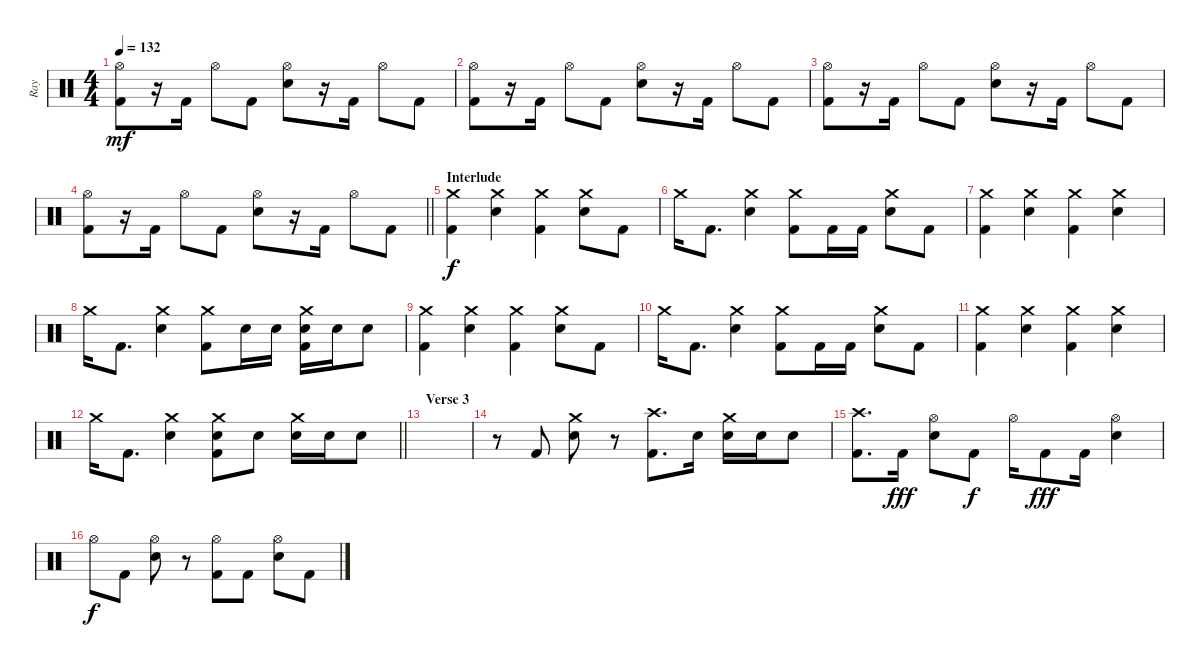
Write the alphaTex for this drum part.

\track ("Ray" "Ray") {instrument percussion}
\staff {score}
\articulation defaults
\ts (4 4)
\tempo 132
\clef neutral
\ks c
("Hi-Hat (open)" "Kick (hit) 2").8{dy mf} r.16 "Kick (hit) 2".16 "Hi-Hat (open)".8 "Kick (hit) 2".8 ("Hi-Hat (open)" "Snare (hit) 2").8 r.16 "Kick (hit) 2".16 "Hi-Hat (open)".8 "Kick (hit) 2".8 |
("Hi-Hat (open)" "Kick (hit) 2").8 r.16 "Kick (hit) 2".16 "Hi-Hat (open)".8 "Kick (hit) 2".8 ("Hi-Hat (open)" "Snare (hit) 2").8 r.16 "Kick (hit) 2".16 "Hi-Hat (open)".8 "Kick (hit) 2".8 |
("Hi-Hat (open)" "Kick (hit) 2").8 r.16 "Kick (hit) 2".16 "Hi-Hat (open)".8 "Kick (hit) 2".8 ("Hi-Hat (open)" "Snare (hit) 2").8 r.16 "Kick (hit) 2".16 "Hi-Hat (open)".8 "Kick (hit) 2".8 |
\barLineRight lightlight
("Hi-Hat (open)" "Kick (hit) 2").8 r.16 "Kick (hit) 2".16 "Hi-Hat (open)".8 "Kick (hit) 2".8 ("Hi-Hat (open)" "Snare (hit) 2").8 r.16 "Kick (hit) 2".16 "Hi-Hat (open)".8 "Kick (hit) 2".8 |
\section ("" "Interlude")
("Crash medium (hit)" "Kick (hit) 2").4{dy f} ("Crash medium (hit)" "Snare (hit) 2").4 ("Crash medium (hit)" "Kick (hit) 2").4 ("Crash medium (hit)" "Snare (hit) 2").8 "Kick (hit) 2".8 |
"Crash medium (hit)".16 "Kick (hit) 2".8{d} ("Crash medium (hit)" "Snare (hit) 2").4 ("Crash medium (hit)" "Kick (hit) 2").8 "Kick (hit) 2".16 "Kick (hit) 2".16 ("Crash medium (hit)" "Snare (hit) 2").8 "Kick (hit) 2".8 |
("Crash medium (hit)" "Kick (hit) 2").4 ("Crash medium (hit)" "Snare (hit) 2").4 ("Crash medium (hit)" "Kick (hit) 2").4 ("Crash medium (hit)" "Snare (hit) 2").4 |
"Crash medium (hit)".16 "Kick (hit) 2".8{d} ("Crash medium (hit)" "Snare (hit) 2").4 ("Crash medium (hit)" "Kick (hit) 2").8 "Snare (hit) 2".16 "Snare (hit) 2".16 ("Crash medium (hit)" "Snare (hit) 2" "Kick (hit) 2").16 "Snare (hit) 2".16 "Snare (hit) 2".8 |
("Crash medium (hit)" "Kick (hit) 2").4 ("Crash medium (hit)" "Snare (hit) 2").4 ("Crash medium (hit)" "Kick (hit) 2").4 ("Crash medium (hit)" "Snare (hit) 2").8 "Kick (hit) 2".8 |
"Crash medium (hit)".16 "Kick (hit) 2".8{d} ("Crash medium (hit)" "Snare (hit) 2").4 ("Crash medium (hit)" "Kick (hit) 2").8 "Kick (hit) 2".16 "Kick (hit) 2".16 ("Crash medium (hit)" "Snare (hit) 2").8 "Kick (hit) 2".8 |
("Crash medium (hit)" "Kick (hit) 2").4 ("Crash medium (hit)" "Snare (hit) 2").4 ("Crash medium (hit)" "Kick (hit) 2").4 ("Crash medium (hit)" "Snare (hit) 2").4 |
\barLineRight lightlight "Crash medium (hit)".16 "Kick (hit) 2".8{d}
("Crash medium (hit)" "Snare (hit) 2").4 ("Crash medium (hit)" "Snare (hit) 2" "Kick (hit) 2").8 "Snare (hit) 2".8 ("Crash medium (hit)" "Snare (hit) 2").16 "Snare (hit) 2".16 "Snare (hit) 2".8 |
\section ("" "Verse 3")
|
r.8 "Kick (hit) 2".8 ("Crash medium (hit)" "Snare (hit) 2").8 r.8 ("Crash high (hit)" "Kick (hit) 2").8{d} "Snare (hit) 2".16 ("Crash medium (hit)" "Snare (hit) 2").16 "Snare (hit) 2".16 "Snare (hit) 2".8 |
("Crash high (hit)" "Kick (hit) 2").8{d} "Kick (hit) 2".16{dy fff} ("Hi-Hat (open)" "Snare (hit) 2").8 "Kick (hit) 2".8{dy f} "Hi-Hat (open)".16 "Kick (hit) 2".8{dy fff} "Kick (hit) 2".16 ("Hi-Hat (open)" "Snare (hit) 2").4 |
"Hi-Hat (open)".8{dy f} "Kick (hit) 2".8 ("Hi-Hat (open)" "Snare (hit) 2").8 r.8 ("Hi-Hat (open)" "Kick (hit) 2").8 "Kick (hit) 2".8 ("Hi-Hat (open)" "Snare (hit) 2").8 "Kick (hit) 2".8
